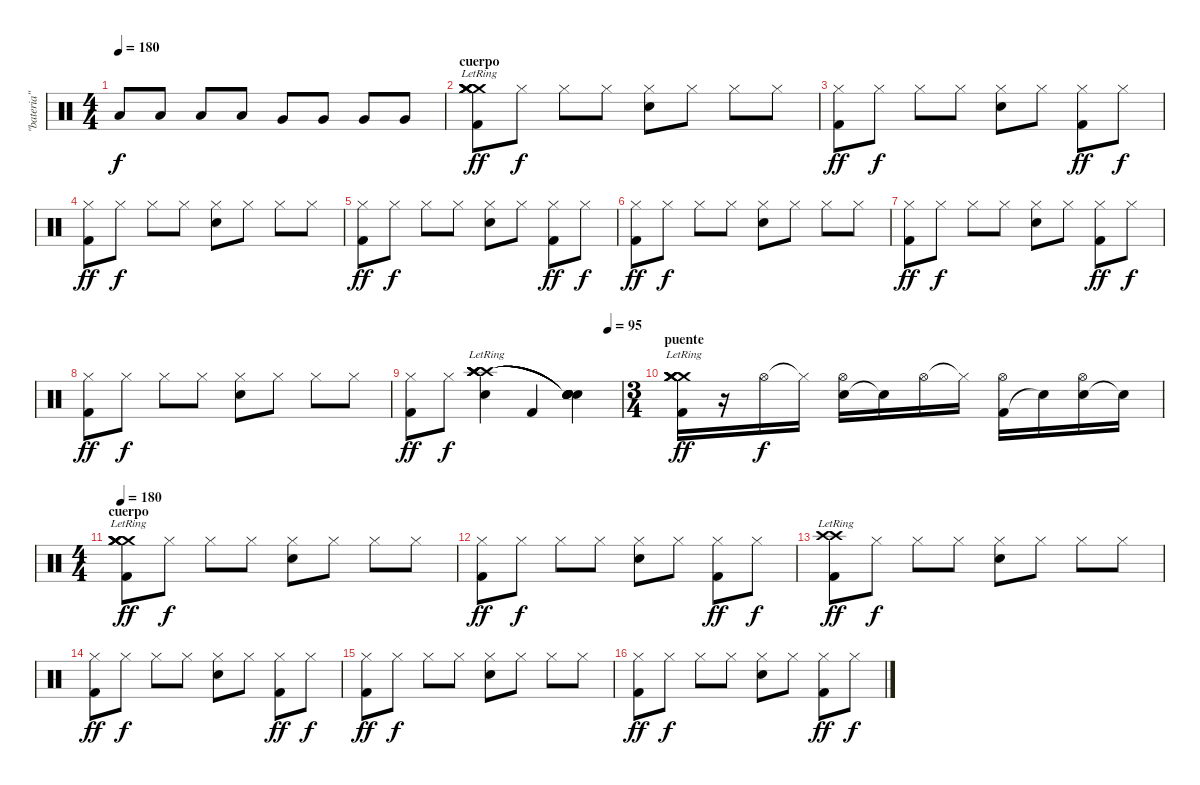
\track ("\"bateria\"" "\"bateria\"") {instrument percussion}
\staff {score}
\articulation defaults
\ts (4 4)
\tempo 180
\clef neutral
\ks c "Low Tom (hit)".8{dy f} "Low Tom (hit)".8 "Low Tom (hit)".8 "Low Tom (hit)".8 "Very Low Tom (hit)".8 "Very Low Tom (hit)".8 "Very Low Tom (hit)".8 "Very Low Tom (hit)".8
|
\section ("" "cuerpo")
("Kick (hit) 2" "Crash medium (hit)"{lr} "Crash medium (hit)"{lr} "Crash medium (hit)"{lr} "Crash medium (hit)"{lr} "Crash medium (hit)"{lr}).8{dy ff} "Hi-Hat (closed)".8{dy f} "Hi-Hat (closed)".8 "Hi-Hat (closed)".8 ("Electric Snare (hit)" "Hi-Hat (closed)").8 "Hi-Hat (closed)".8 "Hi-Hat (closed)".8 "Hi-Hat (closed)".8 |
("Kick (hit) 2" "Hi-Hat (closed)").8{dy ff} "Hi-Hat (closed)".8{dy f} "Hi-Hat (closed)".8 "Hi-Hat (closed)".8 ("Electric Snare (hit)" "Hi-Hat (closed)").8 "Hi-Hat (closed)".8 ("Kick (hit) 2" "Hi-Hat (closed)").8{dy ff} "Hi-Hat (closed)".8{dy f} |
("Kick (hit) 2" "Hi-Hat (closed)").8{dy ff} "Hi-Hat (closed)".8{dy f} "Hi-Hat (closed)".8 "Hi-Hat (closed)".8 ("Electric Snare (hit)" "Hi-Hat (closed)").8 "Hi-Hat (closed)".8 "Hi-Hat (closed)".8 "Hi-Hat (closed)".8 |
("Kick (hit) 2" "Hi-Hat (closed)").8{dy ff} "Hi-Hat (closed)".8{dy f} "Hi-Hat (closed)".8 "Hi-Hat (closed)".8 ("Electric Snare (hit)" "Hi-Hat (closed)").8 "Hi-Hat (closed)".8 ("Kick (hit) 2" "Hi-Hat (closed)").8{dy ff} "Hi-Hat (closed)".8{dy f} |
("Kick (hit) 2" "Hi-Hat (closed)").8{dy ff} "Hi-Hat (closed)".8{dy f} "Hi-Hat (closed)".8 "Hi-Hat (closed)".8 ("Electric Snare (hit)" "Hi-Hat (closed)").8 "Hi-Hat (closed)".8 "Hi-Hat (closed)".8 "Hi-Hat (closed)".8 |
("Kick (hit) 2" "Hi-Hat (closed)").8{dy ff} "Hi-Hat (closed)".8{dy f} "Hi-Hat (closed)".8 "Hi-Hat (closed)".8 ("Electric Snare (hit)" "Hi-Hat (closed)").8 "Hi-Hat (closed)".8 ("Kick (hit) 2" "Hi-Hat (closed)").8{dy ff} "Hi-Hat (closed)".8{dy f} |
("Kick (hit) 2" "Hi-Hat (closed)").8{dy ff} "Hi-Hat (closed)".8{dy f} "Hi-Hat (closed)".8 "Hi-Hat (closed)".8 ("Electric Snare (hit)" "Hi-Hat (closed)").8 "Hi-Hat (closed)".8 "Hi-Hat (closed)".8 "Hi-Hat (closed)".8 |
\tempo (95 0.9375)
("Kick (hit) 2" "Hi-Hat (closed)").8{dy ff} "Hi-Hat (closed)".8{dy f} ("Electric Snare (hit)" "Crash high (hit)"{lr} "Crash high (hit)"{lr} "Crash high (hit)"{lr} "Crash high (hit)"{lr} "Crash high (hit)"{lr}).4 "Kick (hit) 2".4 ("Electric Snare (hit)" "Snare (hit)"{t} "Snare (hit)"{t} "Snare (hit)"{t} "Snare (hit)"{t} "Snare (hit)"{t}).4 |
\ts (3 4)
\section ("" "puente")
("Kick (hit) 2" "Crash medium (hit)"{lr} "Crash medium (hit)"{lr} "Crash medium (hit)"{lr} "Crash medium (hit)"{lr} "Crash medium (hit)"{lr}).16{dy ff} r.16 "Hi-Hat (open)".16{dy f} "Hi-Hat (closed)"{t}.16 ("Electric Snare (hit)" "Hi-Hat (open)").16 "Snare (hit)"{t}.16 "Hi-Hat (open)".16 "Hi-Hat (closed)"{t}.16 ("Kick (hit) 2" "Hi-Hat (open)").16 "Snare (hit)"{t}.16 ("Electric Snare (hit)" "Hi-Hat (open)").16 "Snare (hit)"{t}.16 |
\ts (4 4)
\section ("" "cuerpo")
\tempo 180
("Kick (hit) 2" "Crash medium (hit)"{lr} "Crash medium (hit)"{lr} "Crash medium (hit)"{lr} "Crash medium (hit)"{lr} "Crash medium (hit)"{lr}).8{dy ff} "Hi-Hat (closed)".8{dy f} "Hi-Hat (closed)".8 "Hi-Hat (closed)".8 ("Electric Snare (hit)" "Hi-Hat (closed)").8 "Hi-Hat (closed)".8 "Hi-Hat (closed)".8 "Hi-Hat (closed)".8 |
("Kick (hit) 2" "Hi-Hat (closed)").8{dy ff} "Hi-Hat (closed)".8{dy f} "Hi-Hat (closed)".8 "Hi-Hat (closed)".8 ("Electric Snare (hit)" "Hi-Hat (closed)").8 "Hi-Hat (closed)".8 ("Kick (hit) 2" "Hi-Hat (closed)").8{dy ff} "Hi-Hat (closed)".8{dy f} |
("Kick (hit) 2" "Crash high (hit)" "Crash high (hit)"{lr}).8{dy ff} "Hi-Hat (closed)".8{dy f} "Hi-Hat (closed)".8 "Hi-Hat (closed)".8 ("Electric Snare (hit)" "Hi-Hat (closed)").8 "Hi-Hat (closed)".8 "Hi-Hat (closed)".8 "Hi-Hat (closed)".8 |
("Kick (hit) 2" "Hi-Hat (closed)").8{dy ff} "Hi-Hat (closed)".8{dy f} "Hi-Hat (closed)".8 "Hi-Hat (closed)".8 ("Electric Snare (hit)" "Hi-Hat (closed)").8 "Hi-Hat (closed)".8 ("Kick (hit) 2" "Hi-Hat (closed)").8{dy ff} "Hi-Hat (closed)".8{dy f} |
("Kick (hit) 2" "Hi-Hat (closed)").8{dy ff} "Hi-Hat (closed)".8{dy f} "Hi-Hat (closed)".8 "Hi-Hat (closed)".8 ("Electric Snare (hit)" "Hi-Hat (closed)").8 "Hi-Hat (closed)".8 "Hi-Hat (closed)".8 "Hi-Hat (closed)".8 |
("Kick (hit) 2" "Hi-Hat (closed)").8{dy ff} "Hi-Hat (closed)".8{dy f} "Hi-Hat (closed)".8 "Hi-Hat (closed)".8 ("Electric Snare (hit)" "Hi-Hat (closed)").8 "Hi-Hat (closed)".8 ("Kick (hit) 2" "Hi-Hat (closed)").8{dy ff} "Hi-Hat (closed)".8{dy f}
